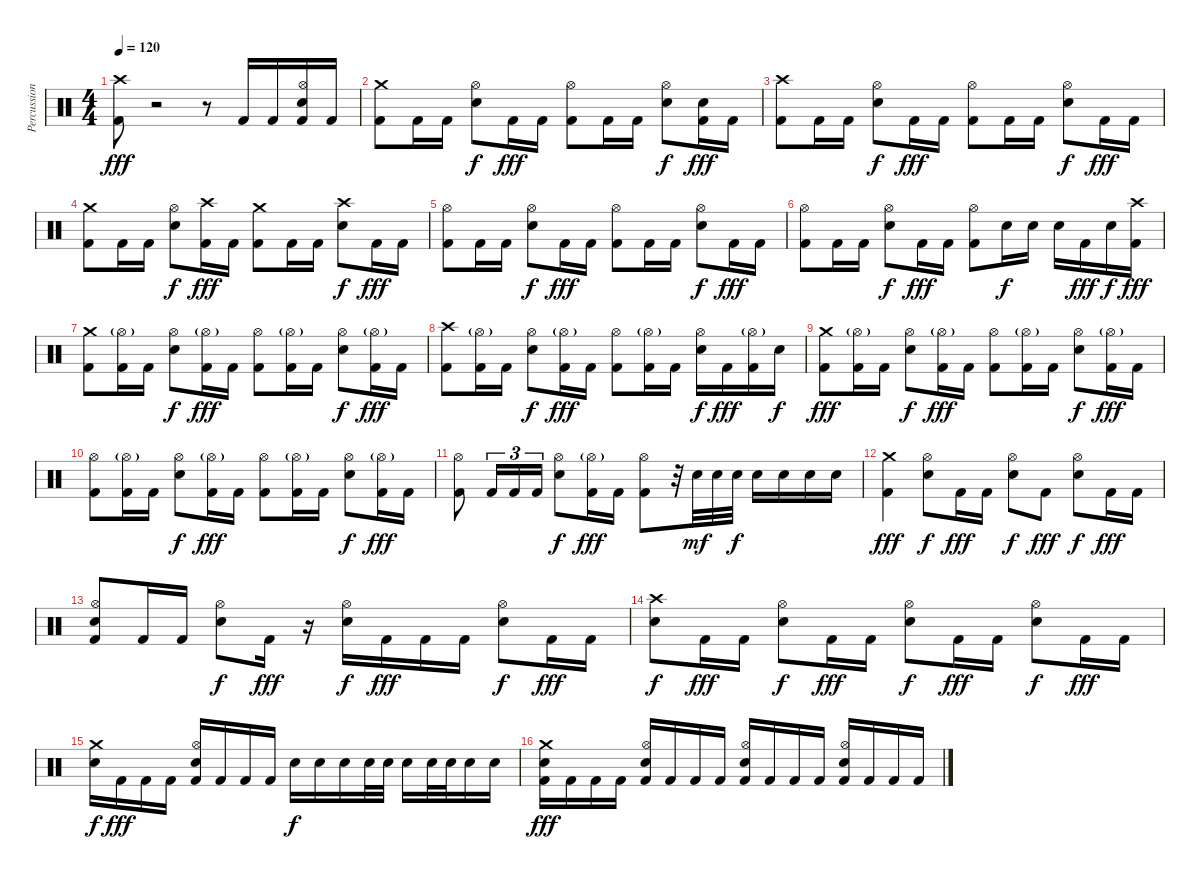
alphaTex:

\track ("Percussion" "Percussion") {instrument percussion}
\staff {score}
\articulation defaults
\ts (4 4)
\tempo 120
\clef neutral
\ks c
("Crash high (hit)" "Kick (hit) 2").8{dy fff} r.2{volume 0} r.8 "Kick (hit) 2".16{volume 11} "Kick (hit) 2".16 ("Hi-Hat (open)" "Snare (hit) 2" "Kick (hit) 2").16 "Kick (hit) 2".16 |
("Crash medium (hit)" "Kick (hit) 2").8 "Kick (hit) 2".16 "Kick (hit) 2".16 ("Hi-Hat (open)" "Snare (hit) 2").8{dy f} "Kick (hit) 2".16{dy fff} "Kick (hit) 2".16 ("Hi-Hat (open)" "Kick (hit) 2").8 "Kick (hit) 2".16 "Kick (hit) 2".16 ("Hi-Hat (open)" "Snare (hit) 2").8{dy f} ("Snare (hit) 2" "Kick (hit) 2").16{dy fff} "Kick (hit) 2".16 |
("Crash high (hit)" "Kick (hit) 2").8 "Kick (hit) 2".16 "Kick (hit) 2".16 ("Hi-Hat (open)" "Snare (hit) 2").8{dy f} "Kick (hit) 2".16{dy fff} "Kick (hit) 2".16 ("Hi-Hat (open)" "Kick (hit) 2").8 "Kick (hit) 2".16 "Kick (hit) 2".16 ("Hi-Hat (open)" "Snare (hit) 2").8{dy f} "Kick (hit) 2".16{dy fff} "Kick (hit) 2".16 |
("Crash medium (hit)" "Kick (hit) 2").8 "Kick (hit) 2".16 "Kick (hit) 2".16 ("Hi-Hat (open)" "Snare (hit) 2").8{dy f} ("Crash high (hit)" "Kick (hit) 2").16{dy fff} "Kick (hit) 2".16 ("Crash medium (hit)" "Kick (hit) 2").8 "Kick (hit) 2".16 "Kick (hit) 2".16 ("Crash high (hit)" "Snare (hit) 2").8{dy f} "Kick (hit) 2".16{dy fff} "Kick (hit) 2".16 |
("Hi-Hat (open)" "Kick (hit) 2").8 "Kick (hit) 2".16 "Kick (hit) 2".16 ("Hi-Hat (open)" "Snare (hit) 2").8{dy f} "Kick (hit) 2".16{dy fff} "Kick (hit) 2".16 ("Hi-Hat (open)" "Kick (hit) 2").8 "Kick (hit) 2".16 "Kick (hit) 2".16 ("Hi-Hat (open)" "Snare (hit) 2").8{dy f} "Kick (hit) 2".16{dy fff} "Kick (hit) 2".16 |
("Hi-Hat (open)" "Kick (hit) 2").8 "Kick (hit) 2".16 "Kick (hit) 2".16 ("Hi-Hat (open)" "Snare (hit) 2").8{dy f} "Kick (hit) 2".16{dy fff} "Kick (hit) 2".16 ("Hi-Hat (open)" "Kick (hit) 2").8 "Snare (hit) 2".16{dy f} "Snare (hit) 2".16 "Snare (hit) 2".16 "Kick (hit) 2".16{dy fff} "Snare (hit) 2".16{dy f} ("Crash high (hit)" "Kick (hit) 2").16{dy fff} |
("Crash medium (hit)" "Kick (hit) 2").8 ("Hi-Hat (open)"{g} "Kick (hit) 2").16 "Kick (hit) 2".16 ("Hi-Hat (open)" "Snare (hit) 2").8{dy f} ("Hi-Hat (open)"{g} "Kick (hit) 2").16{dy fff} "Kick (hit) 2".16 ("Hi-Hat (open)" "Kick (hit) 2").8 ("Hi-Hat (open)"{g} "Kick (hit) 2").16 "Kick (hit) 2".16 ("Hi-Hat (open)" "Snare (hit) 2").8{dy f} ("Hi-Hat (open)"{g} "Kick (hit) 2").16{dy fff} "Kick (hit) 2".16 |
("Crash high (hit)" "Kick (hit) 2").8 ("Hi-Hat (open)"{g} "Kick (hit) 2").16 "Kick (hit) 2".16 ("Hi-Hat (open)" "Snare (hit) 2").8{dy f} ("Hi-Hat (open)"{g} "Kick (hit) 2").16{dy fff} "Kick (hit) 2".16 ("Hi-Hat (open)" "Kick (hit) 2").8 ("Hi-Hat (open)"{g} "Kick (hit) 2").16 "Kick (hit) 2".16 ("Hi-Hat (open)" "Snare (hit) 2").16{dy f} "Kick (hit) 2".16{dy fff} ("Hi-Hat (open)"{g} "Kick (hit) 2").16 "Snare (hit) 2".16{dy f} |
("Crash medium (hit)" "Kick (hit) 2").8{dy fff} ("Hi-Hat (open)"{g} "Kick (hit) 2").16 "Kick (hit) 2".16 ("Hi-Hat (open)" "Snare (hit) 2").8{dy f} ("Hi-Hat (open)"{g} "Kick (hit) 2").16{dy fff} "Kick (hit) 2".16 ("Hi-Hat (open)" "Kick (hit) 2").8 ("Hi-Hat (open)"{g} "Kick (hit) 2").16 "Kick (hit) 2".16 ("Hi-Hat (open)" "Snare (hit) 2").8{dy f} ("Hi-Hat (open)"{g} "Kick (hit) 2").16{dy fff} "Kick (hit) 2".16 |
("Hi-Hat (open)" "Kick (hit) 2").8 ("Hi-Hat (open)"{g} "Kick (hit) 2").16 "Kick (hit) 2".16 ("Hi-Hat (open)" "Snare (hit) 2").8{dy f} ("Hi-Hat (open)"{g} "Kick (hit) 2").16{dy fff} "Kick (hit) 2".16 ("Hi-Hat (open)" "Kick (hit) 2").8 ("Hi-Hat (open)"{g} "Kick (hit) 2").16 "Kick (hit) 2".16 ("Hi-Hat (open)" "Snare (hit) 2").8{dy f} ("Hi-Hat (open)"{g} "Kick (hit) 2").16{dy fff} "Kick (hit) 2".16 |
("Hi-Hat (open)" "Kick (hit) 2").8 "Kick (hit) 2".16{tu (3 2)} "Kick (hit) 2".16{tu (3 2)} "Kick (hit) 2".16{tu (3 2)} ("Hi-Hat (open)" "Snare (hit) 2").8{dy f} ("Hi-Hat (open)"{g} "Kick (hit) 2").16{dy fff} "Kick (hit) 2".16 ("Hi-Hat (open)" "Kick (hit) 2").8 r.32 "Snare (hit) 2".32{dy mf} "Snare (hit) 2".32 "Snare (hit) 2".32{dy f} "Snare (hit) 2".16 "Snare (hit) 2".16 "Snare (hit) 2".16 "Snare (hit) 2".16 |
("Crash medium (hit)" "Kick (hit) 2").4{dy fff} ("Hi-Hat (open)" "Snare (hit) 2").8{dy f} "Kick (hit) 2".16{dy fff} "Kick (hit) 2".16 ("Hi-Hat (open)" "Snare (hit) 2").8{dy f} "Kick (hit) 2".8{dy fff} ("Hi-Hat (open)" "Snare (hit) 2").8{dy f} "Kick (hit) 2".16{dy fff} "Kick (hit) 2".16 |
("Hi-Hat (open)" "Snare (hit) 2" "Kick (hit) 2").8 "Kick (hit) 2".16 "Kick (hit) 2".16 ("Hi-Hat (open)" "Snare (hit) 2").8{dy f} "Kick (hit) 2".16{dy fff} r.16 ("Hi-Hat (open)" "Snare (hit) 2").16{dy f} "Kick (hit) 2".16{dy fff} "Kick (hit) 2".16 "Kick (hit) 2".16 ("Hi-Hat (open)" "Snare (hit) 2").8{dy f} "Kick (hit) 2".16{dy fff} "Kick (hit) 2".16 |
("Crash high (hit)" "Snare (hit) 2").8{dy f} "Kick (hit) 2".16{dy fff} "Kick (hit) 2".16 ("Hi-Hat (open)" "Snare (hit) 2").8{dy f} "Kick (hit) 2".16{dy fff} "Kick (hit) 2".16 ("Hi-Hat (open)" "Snare (hit) 2").8{dy f} "Kick (hit) 2".16{dy fff} "Kick (hit) 2".16 ("Hi-Hat (open)" "Snare (hit) 2").8{dy f} "Kick (hit) 2".16{dy fff} "Kick (hit) 2".16 |
("Crash medium (hit)" "Snare (hit) 2").16{dy f} "Kick (hit) 2".16{dy fff} "Kick (hit) 2".16 "Kick (hit) 2".16 ("Hi-Hat (open)" "Snare (hit) 2" "Kick (hit) 2").16 "Kick (hit) 2".16 "Kick (hit) 2".16 "Kick (hit) 2".16 "Snare (hit) 2".16{dy f} "Snare (hit) 2".16 "Snare (hit) 2".16 "Snare (hit) 2".32 "Snare (hit) 2".32 "Snare (hit) 2".16 "Snare (hit) 2".32 "Snare (hit) 2".32 "Snare (hit) 2".16 "Snare (hit) 2".16 |
("Crash medium (hit)" "Snare (hit) 2" "Kick (hit) 2").16{dy fff} "Kick (hit) 2".16 "Kick (hit) 2".16 "Kick (hit) 2".16 ("Hi-Hat (open)" "Snare (hit) 2" "Kick (hit) 2").16 "Kick (hit) 2".16 "Kick (hit) 2".16 "Kick (hit) 2".16 ("Hi-Hat (open)" "Snare (hit) 2" "Kick (hit) 2").16 "Kick (hit) 2".16 "Kick (hit) 2".16 "Kick (hit) 2".16 ("Hi-Hat (open)" "Snare (hit) 2" "Kick (hit) 2").16 "Kick (hit) 2".16 "Kick (hit) 2".16 "Kick (hit) 2".16
